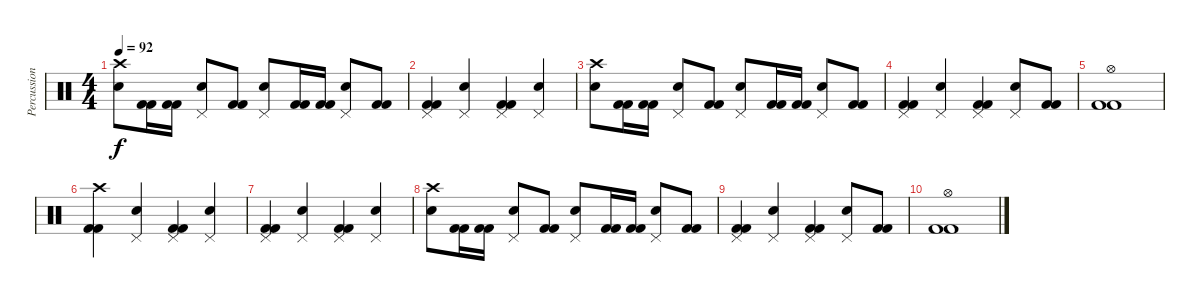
\track ("Percussion" "Percussion") {instrument percussion}
\staff {score}
\articulation defaults
\ts (4 4)
\tempo 92
\clef neutral
\ks c
("Crash high (hit)" "Electric Snare (hit)").8{dy f} ("Kick (hit) 2" "Kick (hit) 2").16 ("Kick (hit) 2" "Kick (hit) 2").16 ("Pedal Hi-Hat (hit)" "Electric Snare (hit)").8 ("Kick (hit) 2" "Kick (hit) 2").8 ("Pedal Hi-Hat (hit)" "Electric Snare (hit)").8 ("Kick (hit) 2" "Kick (hit) 2").16 ("Kick (hit) 2" "Kick (hit) 2").16 ("Pedal Hi-Hat (hit)" "Electric Snare (hit)").8 ("Kick (hit) 2" "Kick (hit) 2").8 |
("Pedal Hi-Hat (hit)" "Kick (hit) 2" "Kick (hit) 2").4 ("Pedal Hi-Hat (hit)" "Electric Snare (hit)").4 ("Pedal Hi-Hat (hit)" "Kick (hit) 2" "Kick (hit) 2").4 ("Pedal Hi-Hat (hit)" "Electric Snare (hit)").4 |
("Crash high (hit)" "Electric Snare (hit)").8 ("Kick (hit) 2" "Kick (hit) 2").16 ("Kick (hit) 2" "Kick (hit) 2").16 ("Pedal Hi-Hat (hit)" "Electric Snare (hit)").8 ("Kick (hit) 2" "Kick (hit) 2").8 ("Pedal Hi-Hat (hit)" "Electric Snare (hit)").8 ("Kick (hit) 2" "Kick (hit) 2").16 ("Kick (hit) 2" "Kick (hit) 2").16 ("Pedal Hi-Hat (hit)" "Electric Snare (hit)").8 ("Kick (hit) 2" "Kick (hit) 2").8 |
("Pedal Hi-Hat (hit)" "Kick (hit) 2" "Kick (hit) 2").4 ("Pedal Hi-Hat (hit)" "Electric Snare (hit)").4 ("Pedal Hi-Hat (hit)" "Kick (hit) 2" "Kick (hit) 2").4 ("Pedal Hi-Hat (hit)" "Electric Snare (hit)").8 ("Kick (hit) 2" "Kick (hit) 2").8 |
("Hi-Hat (open)" "Kick (hit) 2" "Kick (hit) 2").1 |
("Crash high (hit)" "Kick (hit) 2" "Kick (hit) 2").4 ("Pedal Hi-Hat (hit)" "Electric Snare (hit)").4 ("Pedal Hi-Hat (hit)" "Kick (hit) 2" "Kick (hit) 2").4 ("Pedal Hi-Hat (hit)" "Electric Snare (hit)").4 |
("Pedal Hi-Hat (hit)" "Kick (hit) 2" "Kick (hit) 2").4 ("Pedal Hi-Hat (hit)" "Electric Snare (hit)").4 ("Pedal Hi-Hat (hit)" "Kick (hit) 2" "Kick (hit) 2").4 ("Pedal Hi-Hat (hit)" "Electric Snare (hit)").4 |
("Crash high (hit)" "Electric Snare (hit)").8 ("Kick (hit) 2" "Kick (hit) 2").16 ("Kick (hit) 2" "Kick (hit) 2").16 ("Pedal Hi-Hat (hit)" "Electric Snare (hit)").8 ("Kick (hit) 2" "Kick (hit) 2").8 ("Pedal Hi-Hat (hit)" "Electric Snare (hit)").8 ("Kick (hit) 2" "Kick (hit) 2").16 ("Kick (hit) 2" "Kick (hit) 2").16 ("Pedal Hi-Hat (hit)" "Electric Snare (hit)").8 ("Kick (hit) 2" "Kick (hit) 2").8 |
("Pedal Hi-Hat (hit)" "Kick (hit) 2" "Kick (hit) 2").4 ("Pedal Hi-Hat (hit)" "Electric Snare (hit)").4 ("Pedal Hi-Hat (hit)" "Kick (hit) 2" "Kick (hit) 2").4 ("Pedal Hi-Hat (hit)" "Electric Snare (hit)").8 ("Kick (hit) 2" "Kick (hit) 2").8 |
("Hi-Hat (open)" "Kick (hit) 2" "Kick (hit) 2").1
